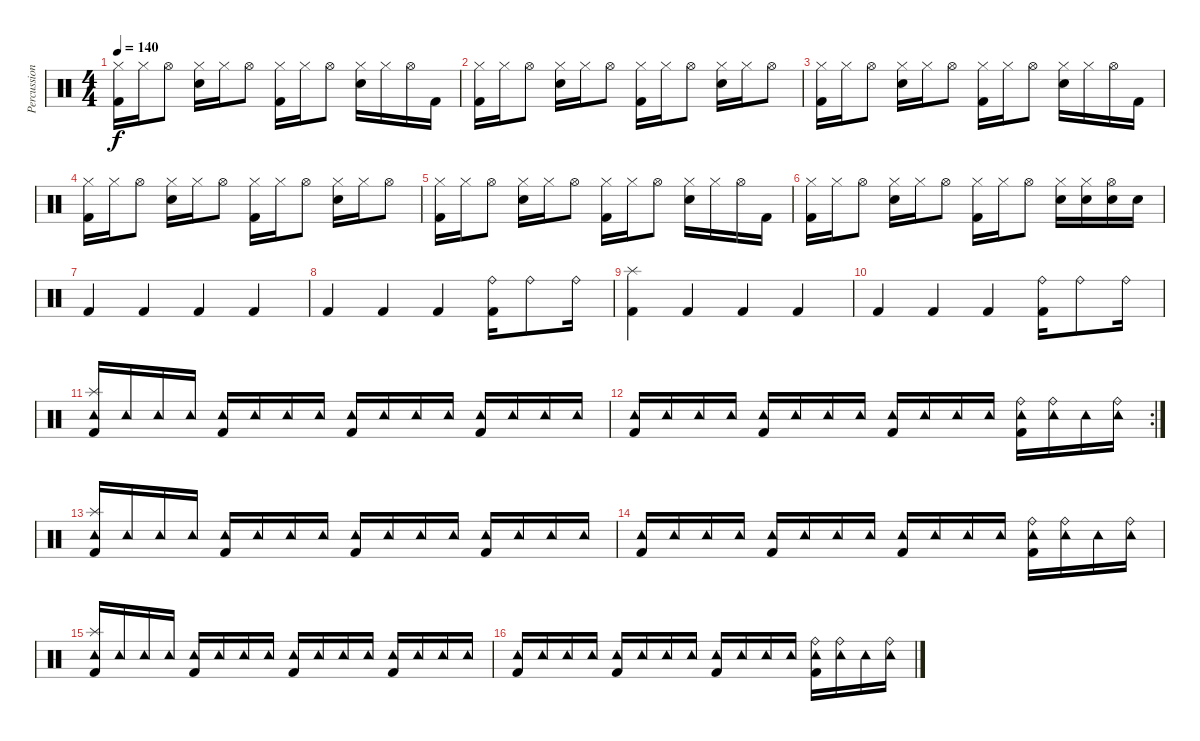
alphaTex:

\track ("Percussion" "Percussion") {instrument percussion}
\staff {score}
\articulation defaults
\ts (4 4)
\tempo 140
\clef neutral
\ks c
("Hi-Hat (closed)" "Kick (hit) 2").16{dy f} "Hi-Hat (closed)".16 "Hi-Hat (open)".8 ("Hi-Hat (closed)" "Snare (hit) 2").16 "Hi-Hat (closed)".16 "Hi-Hat (open)".8 ("Hi-Hat (closed)" "Kick (hit) 2").16 "Hi-Hat (closed)".16 "Hi-Hat (open)".8 ("Hi-Hat (closed)" "Snare (hit) 2").16 "Hi-Hat (closed)".16 "Hi-Hat (open)".16 "Kick (hit) 2".16 |
("Hi-Hat (closed)" "Kick (hit) 2").16 "Hi-Hat (closed)".16 "Hi-Hat (open)".8 ("Hi-Hat (closed)" "Snare (hit) 2").16 "Hi-Hat (closed)".16 "Hi-Hat (open)".8 ("Hi-Hat (closed)" "Kick (hit) 2").16 "Hi-Hat (closed)".16 "Hi-Hat (open)".8 ("Hi-Hat (closed)" "Snare (hit) 2").16 "Hi-Hat (closed)".16 "Hi-Hat (open)".8 |
("Hi-Hat (closed)" "Kick (hit) 2").16 "Hi-Hat (closed)".16 "Hi-Hat (open)".8 ("Hi-Hat (closed)" "Snare (hit) 2").16 "Hi-Hat (closed)".16 "Hi-Hat (open)".8 ("Hi-Hat (closed)" "Kick (hit) 2").16 "Hi-Hat (closed)".16 "Hi-Hat (open)".8 ("Hi-Hat (closed)" "Snare (hit) 2").16 "Hi-Hat (closed)".16 "Hi-Hat (open)".16 "Kick (hit) 2".16 |
("Hi-Hat (closed)" "Kick (hit) 2").16 "Hi-Hat (closed)".16 "Hi-Hat (open)".8 ("Hi-Hat (closed)" "Snare (hit) 2").16 "Hi-Hat (closed)".16 "Hi-Hat (open)".8 ("Hi-Hat (closed)" "Kick (hit) 2").16 "Hi-Hat (closed)".16 "Hi-Hat (open)".8 ("Hi-Hat (closed)" "Snare (hit) 2").16 "Hi-Hat (closed)".16 "Hi-Hat (open)".8 |
("Hi-Hat (closed)" "Kick (hit) 2").16 "Hi-Hat (closed)".16 "Hi-Hat (open)".8 ("Hi-Hat (closed)" "Snare (hit) 2").16 "Hi-Hat (closed)".16 "Hi-Hat (open)".8 ("Hi-Hat (closed)" "Kick (hit) 2").16 "Hi-Hat (closed)".16 "Hi-Hat (open)".8 ("Hi-Hat (closed)" "Snare (hit) 2").16 "Hi-Hat (closed)".16 "Hi-Hat (open)".16 "Kick (hit) 2".16 |
("Hi-Hat (closed)" "Kick (hit) 2").16 "Hi-Hat (closed)".16 "Hi-Hat (open)".8 ("Hi-Hat (closed)" "Snare (hit) 2").16 "Hi-Hat (closed)".16 "Hi-Hat (open)".8 ("Hi-Hat (closed)" "Kick (hit) 2").16 "Hi-Hat (closed)".16 "Hi-Hat (open)".8 ("Hi-Hat (closed)" "Snare (hit) 2").16 ("Hi-Hat (closed)" "Snare (hit) 2").16 ("Hi-Hat (open)" "Snare (hit) 2").16 "Snare (hit) 2".16 |
"Kick (hit) 2".4 "Kick (hit) 2".4 "Kick (hit) 2".4 "Kick (hit) 2".4 |
"Kick (hit) 2".4 "Kick (hit) 2".4 "Kick (hit) 2".4 ("Ride (bell)" "Kick (hit) 2").16 "Ride (bell)".8 "Ride (bell)".16 |
("Splash (hit)" "Kick (hit) 2").4 "Kick (hit) 2".4 "Kick (hit) 2".4 "Kick (hit) 2".4 |
"Kick (hit) 2".4 "Kick (hit) 2".4 "Kick (hit) 2".4 ("Ride (bell)" "Kick (hit) 2").16 "Ride (bell)".8 "Ride (bell)".16 |
("Tambourine (hit)" "Splash (hit)" "Kick (hit) 2").16 "Tambourine (hit)".16 "Tambourine (hit)".16 "Tambourine (hit)".16 ("Tambourine (hit)" "Kick (hit) 2").16 "Tambourine (hit)".16 "Tambourine (hit)".16 "Tambourine (hit)".16 ("Tambourine (hit)" "Kick (hit) 2").16 "Tambourine (hit)".16 "Tambourine (hit)".16 "Tambourine (hit)".16 ("Tambourine (hit)" "Kick (hit) 2").16 "Tambourine (hit)".16 "Tambourine (hit)".16 "Tambourine (hit)".16 |
\rc 2
("Tambourine (hit)" "Kick (hit) 2").16 "Tambourine (hit)".16 "Tambourine (hit)".16 "Tambourine (hit)".16 ("Tambourine (hit)" "Kick (hit) 2").16 "Tambourine (hit)".16 "Tambourine (hit)".16 "Tambourine (hit)".16 ("Tambourine (hit)" "Kick (hit) 2").16 "Tambourine (hit)".16 "Tambourine (hit)".16 "Tambourine (hit)".16 ("Tambourine (hit)" "Ride (bell)" "Kick (hit) 2").16 ("Tambourine (hit)" "Ride (bell)").16 "Tambourine (hit)".16 ("Tambourine (hit)" "Ride (bell)").16 |
("Tambourine (hit)" "Splash (hit)" "Kick (hit) 2").16{volume 0} "Tambourine (hit)".16 "Tambourine (hit)".16 "Tambourine (hit)".16 ("Tambourine (hit)" "Kick (hit) 2").16 "Tambourine (hit)".16 "Tambourine (hit)".16 "Tambourine (hit)".16 ("Tambourine (hit)" "Kick (hit) 2").16 "Tambourine (hit)".16 "Tambourine (hit)".16 "Tambourine (hit)".16 ("Tambourine (hit)" "Kick (hit) 2").16 "Tambourine (hit)".16 "Tambourine (hit)".16 "Tambourine (hit)".16 |
("Tambourine (hit)" "Kick (hit) 2").16 "Tambourine (hit)".16 "Tambourine (hit)".16 "Tambourine (hit)".16 ("Tambourine (hit)" "Kick (hit) 2").16 "Tambourine (hit)".16 "Tambourine (hit)".16 "Tambourine (hit)".16 ("Tambourine (hit)" "Kick (hit) 2").16 "Tambourine (hit)".16 "Tambourine (hit)".16 "Tambourine (hit)".16 ("Tambourine (hit)" "Ride (bell)" "Kick (hit) 2").16 ("Tambourine (hit)" "Ride (bell)").16 "Tambourine (hit)".16 ("Tambourine (hit)" "Ride (bell)").16 |
("Tambourine (hit)" "Splash (hit)" "Kick (hit) 2").16 "Tambourine (hit)".16 "Tambourine (hit)".16 "Tambourine (hit)".16 ("Tambourine (hit)" "Kick (hit) 2").16 "Tambourine (hit)".16 "Tambourine (hit)".16 "Tambourine (hit)".16 ("Tambourine (hit)" "Kick (hit) 2").16 "Tambourine (hit)".16 "Tambourine (hit)".16 "Tambourine (hit)".16 ("Tambourine (hit)" "Kick (hit) 2").16 "Tambourine (hit)".16 "Tambourine (hit)".16 "Tambourine (hit)".16 |
("Tambourine (hit)" "Kick (hit) 2").16 "Tambourine (hit)".16 "Tambourine (hit)".16 "Tambourine (hit)".16 ("Tambourine (hit)" "Kick (hit) 2").16 "Tambourine (hit)".16 "Tambourine (hit)".16 "Tambourine (hit)".16 ("Tambourine (hit)" "Kick (hit) 2").16 "Tambourine (hit)".16 "Tambourine (hit)".16 "Tambourine (hit)".16 ("Tambourine (hit)" "Ride (bell)" "Kick (hit) 2").16 ("Tambourine (hit)" "Ride (bell)").16 "Tambourine (hit)".16 ("Tambourine (hit)" "Ride (bell)").16
